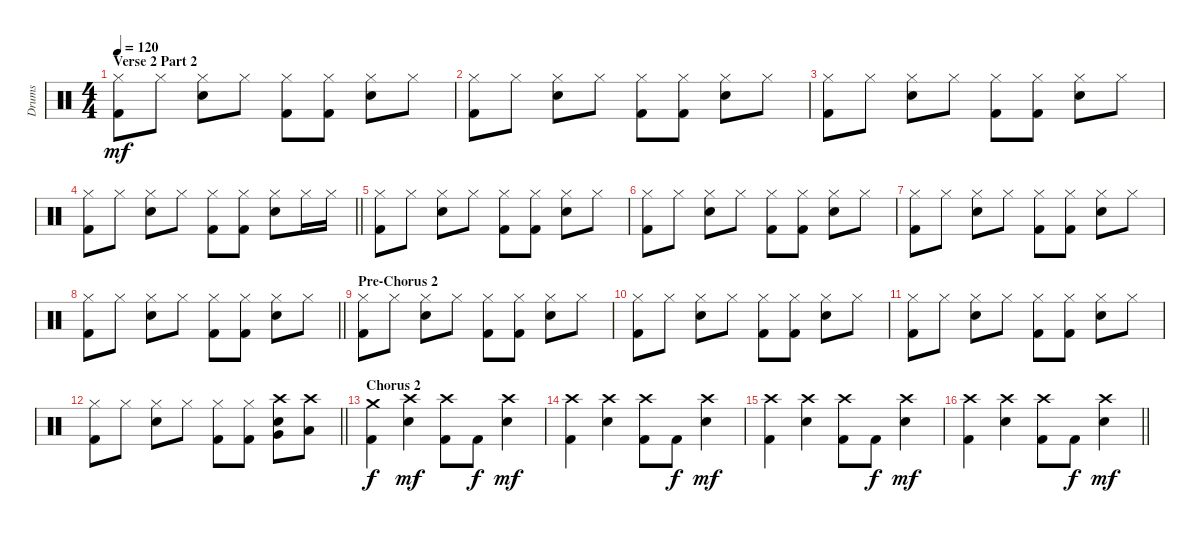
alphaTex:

\track ("Drums" "Drums") {instrument percussion}
\staff {score}
\articulation defaults
\ts (4 4)
\section ("" "Verse 2 Part 2")
\tempo 120
\clef neutral
\ks c
("Hi-Hat (closed)" "Kick (hit) 2").8{dy mf} "Hi-Hat (closed)".8 ("Hi-Hat (closed)" "Snare (hit) 2").8 "Hi-Hat (closed)".8 ("Hi-Hat (closed)" "Kick (hit) 2").8 ("Hi-Hat (closed)" "Kick (hit) 2").8 ("Hi-Hat (closed)" "Snare (hit) 2").8 "Hi-Hat (closed)".8 |
("Hi-Hat (closed)" "Kick (hit) 2").8 "Hi-Hat (closed)".8 ("Hi-Hat (closed)" "Snare (hit) 2").8 "Hi-Hat (closed)".8 ("Hi-Hat (closed)" "Kick (hit) 2").8 ("Hi-Hat (closed)" "Kick (hit) 2").8 ("Hi-Hat (closed)" "Snare (hit) 2").8 "Hi-Hat (closed)".8 |
("Hi-Hat (closed)" "Kick (hit) 2").8 "Hi-Hat (closed)".8 ("Hi-Hat (closed)" "Snare (hit) 2").8 "Hi-Hat (closed)".8 ("Hi-Hat (closed)" "Kick (hit) 2").8 ("Hi-Hat (closed)" "Kick (hit) 2").8 ("Hi-Hat (closed)" "Snare (hit) 2").8 "Hi-Hat (closed)".8 |
\barLineRight lightlight
("Hi-Hat (closed)" "Kick (hit) 2").8 "Hi-Hat (closed)".8 ("Hi-Hat (closed)" "Snare (hit) 2").8 "Hi-Hat (closed)".8 ("Hi-Hat (closed)" "Kick (hit) 2").8 ("Hi-Hat (closed)" "Kick (hit) 2").8 ("Hi-Hat (closed)" "Snare (hit) 2").8 "Hi-Hat (closed)".16 "Hi-Hat (closed)".16 |
("Hi-Hat (closed)" "Kick (hit) 2").8 "Hi-Hat (closed)".8 ("Hi-Hat (closed)" "Snare (hit) 2").8 "Hi-Hat (closed)".8 ("Hi-Hat (closed)" "Kick (hit) 2").8 ("Hi-Hat (closed)" "Kick (hit) 2").8 ("Hi-Hat (closed)" "Snare (hit) 2").8 "Hi-Hat (closed)".8 |
("Hi-Hat (closed)" "Kick (hit) 2").8 "Hi-Hat (closed)".8 ("Hi-Hat (closed)" "Snare (hit) 2").8 "Hi-Hat (closed)".8 ("Hi-Hat (closed)" "Kick (hit) 2").8 ("Hi-Hat (closed)" "Kick (hit) 2").8 ("Hi-Hat (closed)" "Snare (hit) 2").8 "Hi-Hat (closed)".8 |
("Hi-Hat (closed)" "Kick (hit) 2").8 "Hi-Hat (closed)".8 ("Hi-Hat (closed)" "Snare (hit) 2").8 "Hi-Hat (closed)".8 ("Hi-Hat (closed)" "Kick (hit) 2").8 ("Hi-Hat (closed)" "Kick (hit) 2").8 ("Hi-Hat (closed)" "Snare (hit) 2").8 "Hi-Hat (closed)".8 |
\barLineRight lightlight
("Hi-Hat (closed)" "Kick (hit) 2").8 "Hi-Hat (closed)".8 ("Hi-Hat (closed)" "Snare (hit) 2").8 "Hi-Hat (closed)".8 ("Hi-Hat (closed)" "Kick (hit) 2").8 ("Hi-Hat (closed)" "Kick (hit) 2").8 ("Hi-Hat (closed)" "Snare (hit) 2").8 "Hi-Hat (closed)".8 |
\section ("" "Pre-Chorus 2")
("Hi-Hat (closed)" "Kick (hit) 2").8 "Hi-Hat (closed)".8 ("Hi-Hat (closed)" "Snare (hit) 2").8 "Hi-Hat (closed)".8 ("Hi-Hat (closed)" "Kick (hit) 2").8 ("Hi-Hat (closed)" "Kick (hit) 2").8 ("Hi-Hat (closed)" "Snare (hit) 2").8 "Hi-Hat (closed)".8 |
("Hi-Hat (closed)" "Kick (hit) 2").8 "Hi-Hat (closed)".8 ("Hi-Hat (closed)" "Snare (hit) 2").8 "Hi-Hat (closed)".8 ("Hi-Hat (closed)" "Kick (hit) 2").8 ("Hi-Hat (closed)" "Kick (hit) 2").8 ("Hi-Hat (closed)" "Snare (hit) 2").8 "Hi-Hat (closed)".8 |
("Hi-Hat (closed)" "Kick (hit) 2").8 "Hi-Hat (closed)".8 ("Hi-Hat (closed)" "Snare (hit) 2").8 "Hi-Hat (closed)".8 ("Hi-Hat (closed)" "Kick (hit) 2").8 ("Hi-Hat (closed)" "Kick (hit) 2").8 ("Hi-Hat (closed)" "Snare (hit) 2").8 "Hi-Hat (closed)".8 |
\barLineRight lightlight
("Hi-Hat (closed)" "Kick (hit) 2").8 "Hi-Hat (closed)".8 ("Hi-Hat (closed)" "Snare (hit) 2").8 "Hi-Hat (closed)".8 ("Hi-Hat (closed)" "Kick (hit) 2").8 ("Hi-Hat (closed)" "Kick (hit) 2").8 ("Crash high (hit)" "Very Low Tom (hit)" "Snare (hit) 2").8 ("Crash high (hit)" "Low Floor Tom (hit)").8 |
\section ("" "Chorus 2")
("Crash medium (hit)" "Kick (hit) 2").4{dy f} ("Crash high (hit)" "Electric Snare (hit)").4{dy mf} ("Crash high (hit)" "Kick (hit) 2").8 "Kick (hit) 2".8{dy f} ("Crash high (hit)" "Electric Snare (hit)").4{dy mf} |
("Crash high (hit)" "Kick (hit) 2").4 ("Crash high (hit)" "Electric Snare (hit)").4 ("Crash high (hit)" "Kick (hit) 2").8 "Kick (hit) 2".8{dy f} ("Crash high (hit)" "Electric Snare (hit)").4{dy mf} |
("Crash high (hit)" "Kick (hit) 2").4 ("Crash high (hit)" "Electric Snare (hit)").4 ("Crash high (hit)" "Kick (hit) 2").8 "Kick (hit) 2".8{dy f} ("Crash high (hit)" "Electric Snare (hit)").4{dy mf} |
\barLineRight lightlight
("Crash high (hit)" "Kick (hit) 2").4 ("Crash high (hit)" "Electric Snare (hit)").4 ("Crash high (hit)" "Kick (hit) 2").8 "Kick (hit) 2".8{dy f} ("Crash high (hit)" "Electric Snare (hit)").4{dy mf}
